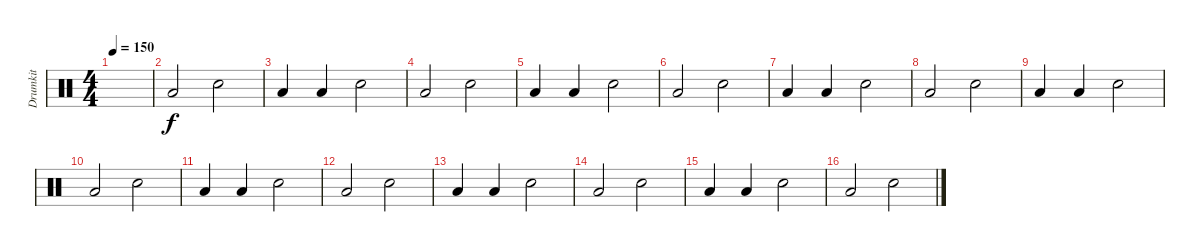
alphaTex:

\track ("Drumkit" "Drumkit") {instrument percussion}
\staff {score}
\articulation defaults
\ts (4 4)
\tempo 150
\clef neutral
\ks c
|
"Low Floor Tom (hit)".2 "Snare (hit) 2".2 |
"Low Floor Tom (hit)".4 "Low Floor Tom (hit)".4 "Snare (hit) 2".2 |
"Low Floor Tom (hit)".2 "Snare (hit) 2".2 |
"Low Floor Tom (hit)".4 "Low Floor Tom (hit)".4 "Snare (hit) 2".2 |
"Low Floor Tom (hit)".2 "Snare (hit) 2".2 |
"Low Floor Tom (hit)".4 "Low Floor Tom (hit)".4 "Snare (hit) 2".2 |
"Low Floor Tom (hit)".2 "Snare (hit) 2".2 |
"Low Floor Tom (hit)".4 "Low Floor Tom (hit)".4 "Snare (hit) 2".2 |
"Low Floor Tom (hit)".2 "Snare (hit) 2".2 |
"Low Floor Tom (hit)".4 "Low Floor Tom (hit)".4 "Snare (hit) 2".2 |
"Low Floor Tom (hit)".2 "Snare (hit) 2".2 |
"Low Floor Tom (hit)".4 "Low Floor Tom (hit)".4 "Snare (hit) 2".2 |
"Low Floor Tom (hit)".2 "Snare (hit) 2".2 |
"Low Floor Tom (hit)".4 "Low Floor Tom (hit)".4 "Snare (hit) 2".2 |
"Low Floor Tom (hit)".2 "Snare (hit) 2".2
